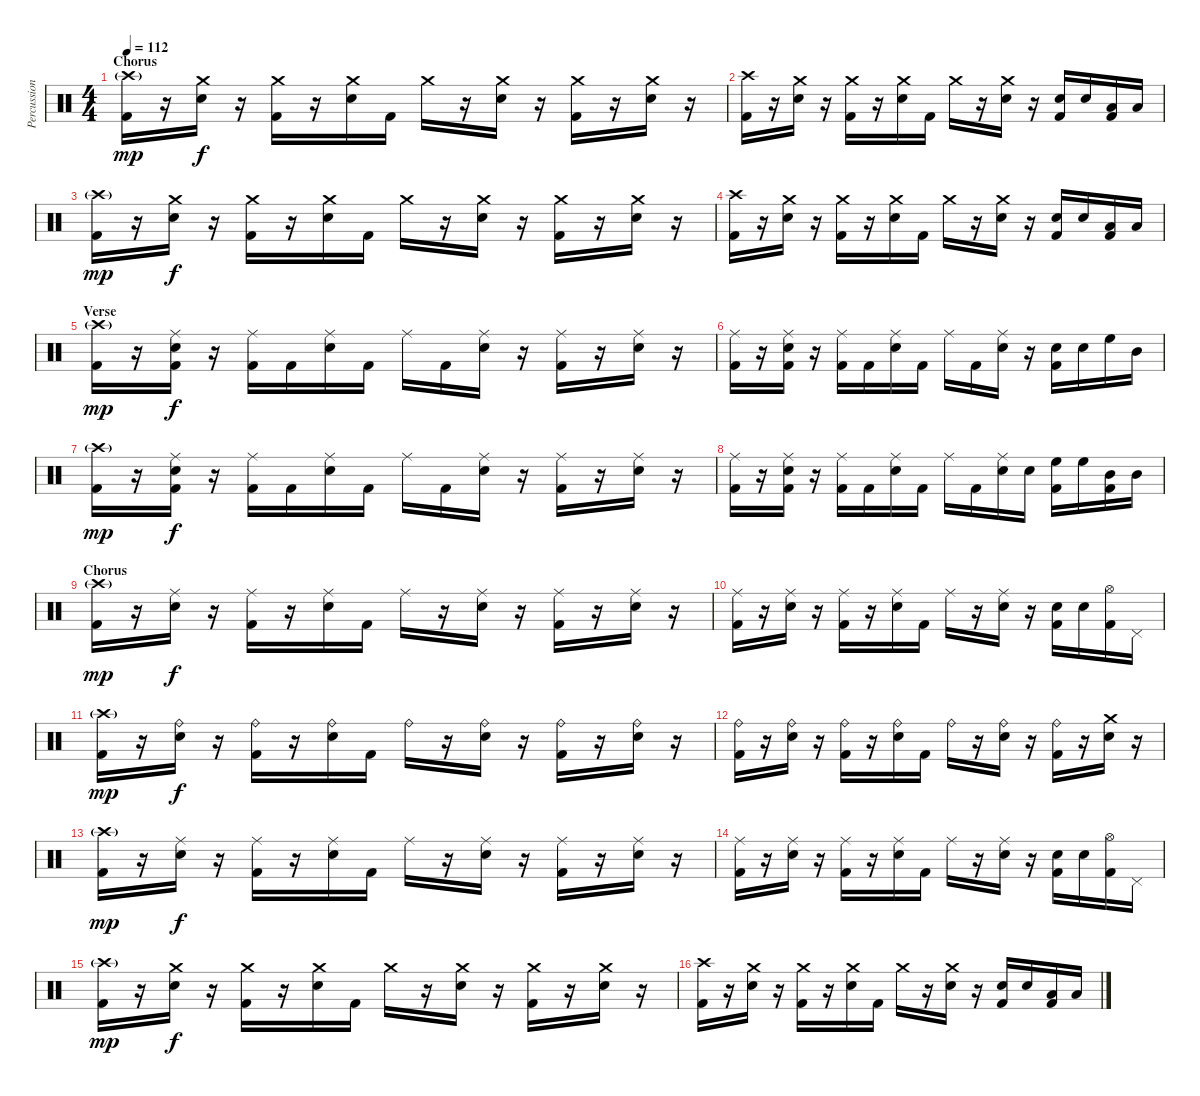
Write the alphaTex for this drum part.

\track ("Percussion" "Percussion") {instrument percussion}
\staff {score}
\articulation defaults
\ts (4 4)
\section ("" "Chorus")
\tempo 112
\clef neutral
\ks c
("Crash high (hit)"{g} "Kick (hit) 2").16{dy mp} r.16 ("Crash medium (hit)" "Snare (hit) 2").16{dy f} r.16 ("Crash medium (hit)" "Kick (hit) 2").16 r.16 ("Crash medium (hit)" "Snare (hit) 2").16 "Kick (hit) 2".16 "Crash medium (hit)".16 r.16 ("Crash medium (hit)" "Snare (hit) 2").16 r.16 ("Crash medium (hit)" "Kick (hit) 2").16 r.16 ("Crash medium (hit)" "Snare (hit) 2").16 r.16 |
("Crash high (hit)" "Kick (hit) 2").16 r.16 ("Crash medium (hit)" "Snare (hit) 2").16 r.16 ("Crash medium (hit)" "Kick (hit) 2").16 r.16 ("Crash medium (hit)" "Snare (hit) 2").16 "Kick (hit) 2".16 "Crash medium (hit)".16 r.16 ("Crash medium (hit)" "Snare (hit) 2").16 r.16 ("Snare (hit) 2" "Kick (hit) 2").16 "Snare (hit) 2".16 ("Low Tom (hit)" "Kick (hit) 2").16 "Low Tom (hit)".16 |
("Crash high (hit)"{g} "Kick (hit) 2").16{dy mp} r.16 ("Crash medium (hit)" "Snare (hit) 2").16{dy f} r.16 ("Crash medium (hit)" "Kick (hit) 2").16 r.16 ("Crash medium (hit)" "Snare (hit) 2").16 "Kick (hit) 2".16 "Crash medium (hit)".16 r.16 ("Crash medium (hit)" "Snare (hit) 2").16 r.16 ("Crash medium (hit)" "Kick (hit) 2").16 r.16 ("Crash medium (hit)" "Snare (hit) 2").16 r.16 |
("Crash high (hit)" "Kick (hit) 2").16 r.16 ("Crash medium (hit)" "Snare (hit) 2").16 r.16 ("Crash medium (hit)" "Kick (hit) 2").16 r.16 ("Crash medium (hit)" "Snare (hit) 2").16 "Kick (hit) 2".16 "Crash medium (hit)".16 r.16 ("Crash medium (hit)" "Snare (hit) 2").16 r.16 ("Snare (hit) 2" "Kick (hit) 2").16 "Snare (hit) 2".16 ("Low Tom (hit)" "Kick (hit) 2").16 "Low Tom (hit)".16 |
\section ("" "Verse")
("Crash high (hit)"{g} "Kick (hit) 2").16{dy mp} r.16 ("Ride (middle)" "Snare (hit) 2" "Kick (hit) 2").16{dy f} r.16 ("Ride (middle)" "Kick (hit) 2").16 "Kick (hit) 2".16 ("Ride (middle)" "Snare (hit) 2").16 "Kick (hit) 2".16 "Ride (middle)".16 "Kick (hit) 2".16 ("Ride (middle)" "Snare (hit) 2").16 r.16 ("Ride (middle)" "Kick (hit) 2").16 r.16 ("Ride (middle)" "Snare (hit) 2").16 r.16 |
("Ride (middle)" "Kick (hit) 2").16 r.16 ("Ride (middle)" "Snare (hit) 2" "Kick (hit) 2").16 r.16 ("Ride (middle)" "Kick (hit) 2").16 "Kick (hit) 2".16 ("Ride (middle)" "Snare (hit) 2").16 "Kick (hit) 2".16 "Ride (middle)".16 "Kick (hit) 2".16 ("Ride (middle)" "Snare (hit) 2").16 r.16 ("Snare (hit) 2" "Kick (hit) 2").16 "Snare (hit) 2".16 "High Floor Tom (hit)".16 "Mid Tom (hit)".16 |
("Crash high (hit)"{g} "Kick (hit) 2").16{dy mp} r.16 ("Ride (middle)" "Snare (hit) 2" "Kick (hit) 2").16{dy f} r.16 ("Ride (middle)" "Kick (hit) 2").16 "Kick (hit) 2".16 ("Ride (middle)" "Snare (hit) 2").16 "Kick (hit) 2".16 "Ride (middle)".16 "Kick (hit) 2".16 ("Ride (middle)" "Snare (hit) 2").16 r.16 ("Ride (middle)" "Kick (hit) 2").16 r.16 ("Ride (middle)" "Snare (hit) 2").16 r.16 |
("Ride (middle)" "Kick (hit) 2").16 r.16 ("Ride (middle)" "Snare (hit) 2" "Kick (hit) 2").16 r.16 ("Ride (middle)" "Kick (hit) 2").16 "Kick (hit) 2".16 ("Ride (middle)" "Snare (hit) 2").16 "Kick (hit) 2".16 "Ride (middle)".16 "Kick (hit) 2".16 ("Ride (middle)" "Snare (hit) 2").16 "Snare (hit) 2".16 ("High Floor Tom (hit)" "Kick (hit) 2").16 "High Floor Tom (hit)".16 ("Mid Tom (hit)" "Kick (hit) 2").16 "Mid Tom (hit)".16 |
\section ("" "Chorus")
("Crash high (hit)"{g} "Kick (hit) 2").16{dy mp} r.16 ("Ride (middle)" "Snare (hit) 2").16{dy f} r.16 ("Ride (middle)" "Kick (hit) 2").16 r.16 ("Ride (middle)" "Snare (hit) 2").16 "Kick (hit) 2".16 "Ride (middle)".16 r.16 ("Ride (middle)" "Snare (hit) 2").16 r.16 ("Ride (middle)" "Kick (hit) 2").16 r.16 ("Ride (middle)" "Snare (hit) 2").16 r.16 |
("Ride (middle)" "Kick (hit) 2").16 r.16 ("Ride (middle)" "Snare (hit) 2").16 r.16 ("Ride (middle)" "Kick (hit) 2").16 r.16 ("Ride (middle)" "Snare (hit) 2").16 "Kick (hit) 2".16 "Ride (middle)".16 r.16 ("Ride (middle)" "Snare (hit) 2").16 r.16 ("Snare (hit) 2" "Kick (hit) 2").16 "Snare (hit) 2".16 ("Hi-Hat (open)" "Kick (hit) 2").16 "Pedal Hi-Hat (hit)".16 |
("Crash high (hit)"{g} "Kick (hit) 2").16{dy mp} r.16 ("Ride (bell)" "Snare (hit) 2").16{dy f} r.16 ("Ride (bell)" "Kick (hit) 2").16 r.16 ("Ride (bell)" "Snare (hit) 2").16 "Kick (hit) 2".16 "Ride (bell)".16 r.16 ("Ride (bell)" "Snare (hit) 2").16 r.16 ("Ride (bell)" "Kick (hit) 2").16 r.16 ("Ride (bell)" "Snare (hit) 2").16 r.16 |
("Ride (bell)" "Kick (hit) 2").16 r.16 ("Ride (bell)" "Snare (hit) 2").16 r.16 ("Ride (bell)" "Kick (hit) 2").16 r.16 ("Ride (bell)" "Snare (hit) 2").16 "Kick (hit) 2".16 "Ride (bell)".16 r.16 ("Ride (bell)" "Snare (hit) 2").16 r.16 ("Ride (bell)" "Kick (hit) 2").16 r.16 ("Crash medium (hit)" "Snare (hit) 2").16 r.16 |
("Crash high (hit)"{g} "Kick (hit) 2").16{dy mp} r.16 ("Ride (middle)" "Snare (hit) 2").16{dy f} r.16 ("Ride (middle)" "Kick (hit) 2").16 r.16 ("Ride (middle)" "Snare (hit) 2").16 "Kick (hit) 2".16 "Ride (middle)".16 r.16 ("Ride (middle)" "Snare (hit) 2").16 r.16 ("Ride (middle)" "Kick (hit) 2").16 r.16 ("Ride (middle)" "Snare (hit) 2").16 r.16 |
("Ride (middle)" "Kick (hit) 2").16 r.16 ("Ride (middle)" "Snare (hit) 2").16 r.16 ("Ride (middle)" "Kick (hit) 2").16 r.16 ("Ride (middle)" "Snare (hit) 2").16 "Kick (hit) 2".16 "Ride (middle)".16 r.16 ("Ride (middle)" "Snare (hit) 2").16 r.16 ("Snare (hit) 2" "Kick (hit) 2").16 "Snare (hit) 2".16 ("Hi-Hat (open)" "Kick (hit) 2").16 "Pedal Hi-Hat (hit)".16 |
("Crash high (hit)"{g} "Kick (hit) 2").16{dy mp} r.16 ("Crash medium (hit)" "Snare (hit) 2").16{dy f} r.16 ("Crash medium (hit)" "Kick (hit) 2").16 r.16 ("Crash medium (hit)" "Snare (hit) 2").16 "Kick (hit) 2".16 "Crash medium (hit)".16 r.16 ("Crash medium (hit)" "Snare (hit) 2").16 r.16 ("Crash medium (hit)" "Kick (hit) 2").16 r.16 ("Crash medium (hit)" "Snare (hit) 2").16 r.16 |
("Crash high (hit)" "Kick (hit) 2").16 r.16 ("Crash medium (hit)" "Snare (hit) 2").16 r.16 ("Crash medium (hit)" "Kick (hit) 2").16 r.16 ("Crash medium (hit)" "Snare (hit) 2").16 "Kick (hit) 2".16 "Crash medium (hit)".16 r.16 ("Crash medium (hit)" "Snare (hit) 2").16 r.16 ("Snare (hit) 2" "Kick (hit) 2").16 "Snare (hit) 2".16 ("Low Tom (hit)" "Kick (hit) 2").16 "Low Tom (hit)".16
